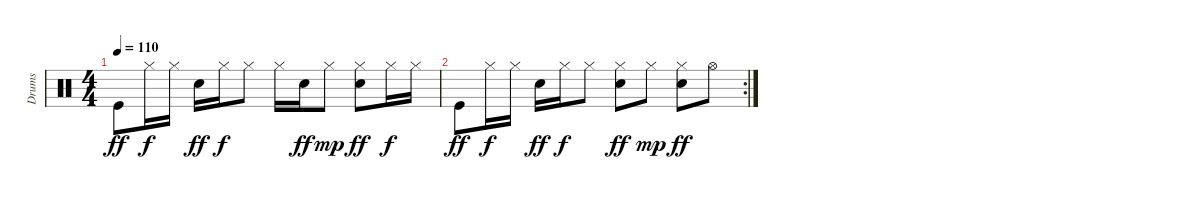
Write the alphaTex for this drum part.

\track ("Drums" "Drums") {instrument percussion}
\staff {score}
\articulation defaults
\ts (4 4)
\tempo 110
\clef neutral
\ks c "Kick (hit)".8{dy ff} "Hi-Hat (closed)".16{dy f} "Hi-Hat (closed)".16 "Snare (hit) 2".16{dy ff} "Hi-Hat (closed)".16{dy f} "Hi-Hat (closed)".8 "Hi-Hat (closed)".16 "Snare (hit) 2".16{dy ff} "Hi-Hat (closed)".8{dy mp}
("Hi-Hat (closed)" "Snare (hit) 2").8{dy ff} "Hi-Hat (closed)".16{dy f} "Hi-Hat (closed)".16 |
\rc 2 "Kick (hit)".8{dy ff} "Hi-Hat (closed)".16{dy f} "Hi-Hat (closed)".16 "Snare (hit) 2".16{dy ff} "Hi-Hat (closed)".16{dy f} "Hi-Hat (closed)".8
("Hi-Hat (closed)" "Snare (hit) 2").8{dy ff} "Hi-Hat (closed)".8{dy mp} ("Hi-Hat (closed)" "Snare (hit) 2").8{dy ff} "Hi-Hat (open)".8
